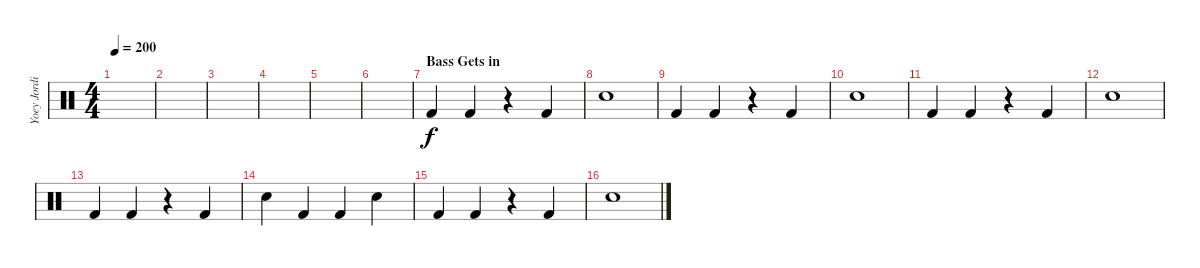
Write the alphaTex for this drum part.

\track ("Yoey Jordison" "Yoey Jordi") {instrument percussion}
\staff {score}
\articulation defaults
\ts (4 4)
\tempo 200
\clef neutral
\ks c
|
|
|
|
|
|
\section ("" "Bass Gets in")
"Kick (hit) 2".4 "Kick (hit) 2".4 r.4 "Kick (hit) 2".4 |
"Snare (hit) 2".1 |
"Kick (hit) 2".4 "Kick (hit) 2".4 r.4 "Kick (hit) 2".4 |
"Snare (hit) 2".1 |
"Kick (hit) 2".4 "Kick (hit) 2".4 r.4 "Kick (hit) 2".4 |
"Snare (hit) 2".1 |
"Kick (hit) 2".4 "Kick (hit) 2".4 r.4 "Kick (hit) 2".4 |
"Snare (hit) 2".4 "Kick (hit) 2".4 "Kick (hit) 2".4 "Snare (hit) 2".4 |
"Kick (hit) 2".4 "Kick (hit) 2".4 r.4 "Kick (hit) 2".4 |
"Snare (hit) 2".1
